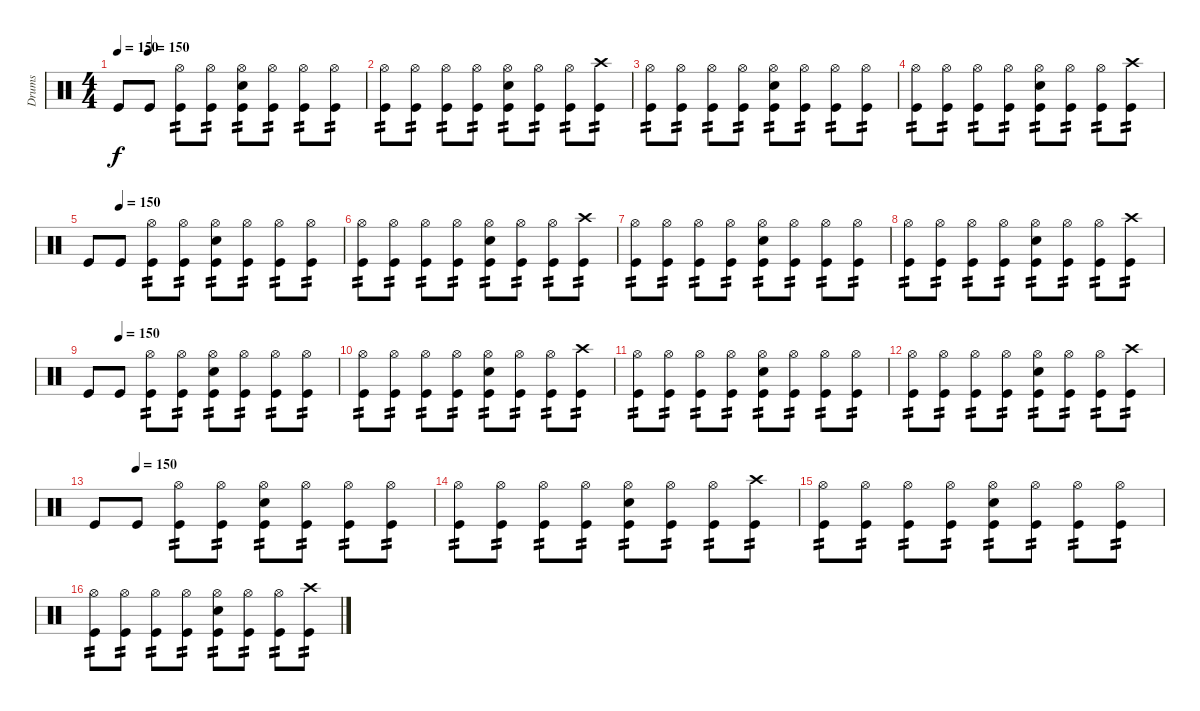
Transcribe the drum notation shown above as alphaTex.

\track ("Drums" "Drums") {instrument percussion}
\staff {score}
\articulation defaults
\ts (4 4)
\tempo 150
\tempo (150 0.125)
\clef neutral
\ks c "Kick (hit)".8{dy f} "Kick (hit)".8
("Hi-Hat (open)" "Kick (hit)").8{tp 2} ("Hi-Hat (open)" "Kick (hit)").8{tp 2} ("Hi-Hat (open)" "Electric Snare (hit)" "Kick (hit)").8{tp 2} ("Hi-Hat (open)" "Kick (hit)").8{tp 2} ("Hi-Hat (open)" "Kick (hit)").8{tp 2} ("Hi-Hat (open)" "Kick (hit)").8{tp 2} |
("Hi-Hat (open)" "Kick (hit)").8{tp 2} ("Hi-Hat (open)" "Kick (hit)").8{tp 2} ("Hi-Hat (open)" "Kick (hit)").8{tp 2} ("Hi-Hat (open)" "Kick (hit)").8{tp 2} ("Hi-Hat (open)" "Electric Snare (hit)" "Kick (hit)").8{tp 2} ("Hi-Hat (open)" "Kick (hit)").8{tp 2} ("Hi-Hat (open)" "Kick (hit)").8{tp 2} ("Crash high (hit)" "Kick (hit)").8{tp 2} |
("Hi-Hat (open)" "Kick (hit)").8{tp 2} ("Hi-Hat (open)" "Kick (hit)").8{tp 2} ("Hi-Hat (open)" "Kick (hit)").8{tp 2} ("Hi-Hat (open)" "Kick (hit)").8{tp 2} ("Hi-Hat (open)" "Electric Snare (hit)" "Kick (hit)").8{tp 2} ("Hi-Hat (open)" "Kick (hit)").8{tp 2} ("Hi-Hat (open)" "Kick (hit)").8{tp 2} ("Hi-Hat (open)" "Kick (hit)").8{tp 2} |
("Hi-Hat (open)" "Kick (hit)").8{tp 2} ("Hi-Hat (open)" "Kick (hit)").8{tp 2} ("Hi-Hat (open)" "Kick (hit)").8{tp 2} ("Hi-Hat (open)" "Kick (hit)").8{tp 2} ("Hi-Hat (open)" "Electric Snare (hit)" "Kick (hit)").8{tp 2} ("Hi-Hat (open)" "Kick (hit)").8{tp 2} ("Hi-Hat (open)" "Kick (hit)").8{tp 2} ("Crash high (hit)" "Kick (hit)").8{tp 2} |
\tempo (150 0.125)
"Kick (hit)".8 "Kick (hit)".8 ("Hi-Hat (open)" "Kick (hit)").8{tp 2} ("Hi-Hat (open)" "Kick (hit)").8{tp 2} ("Hi-Hat (open)" "Electric Snare (hit)" "Kick (hit)").8{tp 2} ("Hi-Hat (open)" "Kick (hit)").8{tp 2} ("Hi-Hat (open)" "Kick (hit)").8{tp 2} ("Hi-Hat (open)" "Kick (hit)").8{tp 2} |
("Hi-Hat (open)" "Kick (hit)").8{tp 2} ("Hi-Hat (open)" "Kick (hit)").8{tp 2} ("Hi-Hat (open)" "Kick (hit)").8{tp 2} ("Hi-Hat (open)" "Kick (hit)").8{tp 2} ("Hi-Hat (open)" "Electric Snare (hit)" "Kick (hit)").8{tp 2} ("Hi-Hat (open)" "Kick (hit)").8{tp 2} ("Hi-Hat (open)" "Kick (hit)").8{tp 2} ("Crash high (hit)" "Kick (hit)").8{tp 2} |
("Hi-Hat (open)" "Kick (hit)").8{tp 2} ("Hi-Hat (open)" "Kick (hit)").8{tp 2} ("Hi-Hat (open)" "Kick (hit)").8{tp 2} ("Hi-Hat (open)" "Kick (hit)").8{tp 2} ("Hi-Hat (open)" "Electric Snare (hit)" "Kick (hit)").8{tp 2} ("Hi-Hat (open)" "Kick (hit)").8{tp 2} ("Hi-Hat (open)" "Kick (hit)").8{tp 2} ("Hi-Hat (open)" "Kick (hit)").8{tp 2} |
("Hi-Hat (open)" "Kick (hit)").8{tp 2} ("Hi-Hat (open)" "Kick (hit)").8{tp 2} ("Hi-Hat (open)" "Kick (hit)").8{tp 2} ("Hi-Hat (open)" "Kick (hit)").8{tp 2} ("Hi-Hat (open)" "Electric Snare (hit)" "Kick (hit)").8{tp 2} ("Hi-Hat (open)" "Kick (hit)").8{tp 2} ("Hi-Hat (open)" "Kick (hit)").8{tp 2} ("Crash high (hit)" "Kick (hit)").8{tp 2} |
\tempo (150 0.125)
"Kick (hit)".8 "Kick (hit)".8 ("Hi-Hat (open)" "Kick (hit)").8{tp 2} ("Hi-Hat (open)" "Kick (hit)").8{tp 2} ("Hi-Hat (open)" "Electric Snare (hit)" "Kick (hit)").8{tp 2} ("Hi-Hat (open)" "Kick (hit)").8{tp 2} ("Hi-Hat (open)" "Kick (hit)").8{tp 2} ("Hi-Hat (open)" "Kick (hit)").8{tp 2} |
("Hi-Hat (open)" "Kick (hit)").8{tp 2} ("Hi-Hat (open)" "Kick (hit)").8{tp 2} ("Hi-Hat (open)" "Kick (hit)").8{tp 2} ("Hi-Hat (open)" "Kick (hit)").8{tp 2} ("Hi-Hat (open)" "Electric Snare (hit)" "Kick (hit)").8{tp 2} ("Hi-Hat (open)" "Kick (hit)").8{tp 2} ("Hi-Hat (open)" "Kick (hit)").8{tp 2} ("Crash high (hit)" "Kick (hit)").8{tp 2} |
("Hi-Hat (open)" "Kick (hit)").8{tp 2} ("Hi-Hat (open)" "Kick (hit)").8{tp 2} ("Hi-Hat (open)" "Kick (hit)").8{tp 2} ("Hi-Hat (open)" "Kick (hit)").8{tp 2} ("Hi-Hat (open)" "Electric Snare (hit)" "Kick (hit)").8{tp 2} ("Hi-Hat (open)" "Kick (hit)").8{tp 2} ("Hi-Hat (open)" "Kick (hit)").8{tp 2} ("Hi-Hat (open)" "Kick (hit)").8{tp 2} |
("Hi-Hat (open)" "Kick (hit)").8{tp 2} ("Hi-Hat (open)" "Kick (hit)").8{tp 2} ("Hi-Hat (open)" "Kick (hit)").8{tp 2} ("Hi-Hat (open)" "Kick (hit)").8{tp 2} ("Hi-Hat (open)" "Electric Snare (hit)" "Kick (hit)").8{tp 2} ("Hi-Hat (open)" "Kick (hit)").8{tp 2} ("Hi-Hat (open)" "Kick (hit)").8{tp 2} ("Crash high (hit)" "Kick (hit)").8{tp 2} |
\tempo (150 0.125)
"Kick (hit)".8 "Kick (hit)".8 ("Hi-Hat (open)" "Kick (hit)").8{tp 2} ("Hi-Hat (open)" "Kick (hit)").8{tp 2} ("Hi-Hat (open)" "Electric Snare (hit)" "Kick (hit)").8{tp 2} ("Hi-Hat (open)" "Kick (hit)").8{tp 2} ("Hi-Hat (open)" "Kick (hit)").8{tp 2} ("Hi-Hat (open)" "Kick (hit)").8{tp 2} |
("Hi-Hat (open)" "Kick (hit)").8{tp 2} ("Hi-Hat (open)" "Kick (hit)").8{tp 2} ("Hi-Hat (open)" "Kick (hit)").8{tp 2} ("Hi-Hat (open)" "Kick (hit)").8{tp 2} ("Hi-Hat (open)" "Electric Snare (hit)" "Kick (hit)").8{tp 2} ("Hi-Hat (open)" "Kick (hit)").8{tp 2} ("Hi-Hat (open)" "Kick (hit)").8{tp 2} ("Crash high (hit)" "Kick (hit)").8{tp 2} |
("Hi-Hat (open)" "Kick (hit)").8{tp 2} ("Hi-Hat (open)" "Kick (hit)").8{tp 2} ("Hi-Hat (open)" "Kick (hit)").8{tp 2} ("Hi-Hat (open)" "Kick (hit)").8{tp 2} ("Hi-Hat (open)" "Electric Snare (hit)" "Kick (hit)").8{tp 2} ("Hi-Hat (open)" "Kick (hit)").8{tp 2} ("Hi-Hat (open)" "Kick (hit)").8{tp 2} ("Hi-Hat (open)" "Kick (hit)").8{tp 2} |
("Hi-Hat (open)" "Kick (hit)").8{tp 2} ("Hi-Hat (open)" "Kick (hit)").8{tp 2} ("Hi-Hat (open)" "Kick (hit)").8{tp 2} ("Hi-Hat (open)" "Kick (hit)").8{tp 2} ("Hi-Hat (open)" "Electric Snare (hit)" "Kick (hit)").8{tp 2} ("Hi-Hat (open)" "Kick (hit)").8{tp 2} ("Hi-Hat (open)" "Kick (hit)").8{tp 2} ("Crash high (hit)" "Kick (hit)").8{tp 2}
